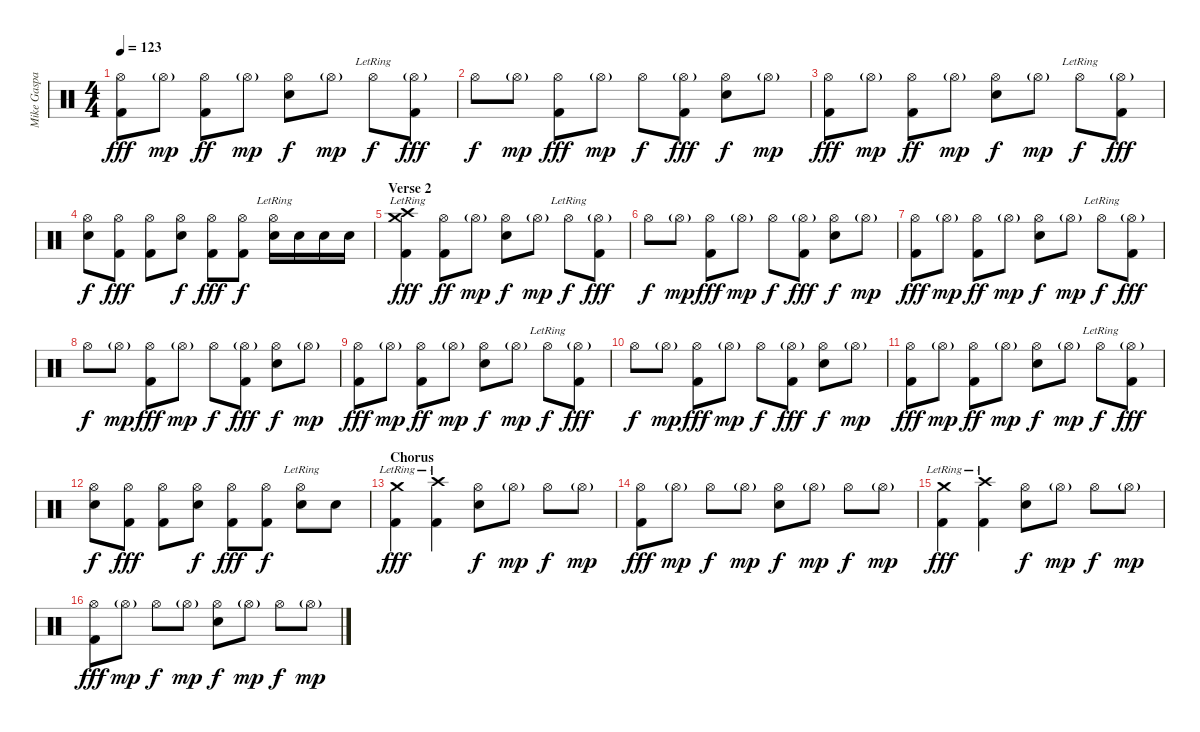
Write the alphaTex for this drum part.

\track ("Mike Gaspar (Drums)" "Mike Gaspa") {instrument percussion}
\staff {score}
\articulation defaults
\ts (4 4)
\tempo 123
\clef neutral
\ks c
("Hi-Hat (open)" "Kick (hit) 2").8{dy fff} "Hi-Hat (open)"{g}.8{dy mp} ("Hi-Hat (open)" "Kick (hit) 2").8{dy ff} "Hi-Hat (open)"{g}.8{dy mp} ("Hi-Hat (open)" "Snare (hit) 2").8{dy f} "Hi-Hat (open)"{g}.8{dy mp} "Hi-Hat (open)"{lr}.8{dy f} ("Hi-Hat (open)"{g} "Kick (hit) 2").8{dy fff} |
"Hi-Hat (open)".8{dy f} "Hi-Hat (open)"{g}.8{dy mp} ("Hi-Hat (open)" "Kick (hit) 2").8{dy fff} "Hi-Hat (open)"{g}.8{dy mp} "Hi-Hat (open)".8{dy f} ("Hi-Hat (open)"{g} "Kick (hit) 2").8{dy fff} ("Hi-Hat (open)" "Snare (hit) 2").8{dy f} "Hi-Hat (open)"{g}.8{dy mp} |
("Hi-Hat (open)" "Kick (hit) 2").8{dy fff} "Hi-Hat (open)"{g}.8{dy mp} ("Hi-Hat (open)" "Kick (hit) 2").8{dy ff} "Hi-Hat (open)"{g}.8{dy mp} ("Hi-Hat (open)" "Snare (hit) 2").8{dy f} "Hi-Hat (open)"{g}.8{dy mp} "Hi-Hat (open)"{lr}.8{dy f} ("Hi-Hat (open)"{g} "Kick (hit) 2").8{dy fff} |
("Hi-Hat (open)" "Snare (hit) 2").8{dy f} ("Hi-Hat (open)" "Kick (hit) 2").8{dy fff} ("Hi-Hat (open)" "Kick (hit) 2").8 ("Hi-Hat (open)" "Snare (hit) 2").8{dy f} ("Hi-Hat (open)" "Kick (hit) 2").8{dy fff} ("Hi-Hat (open)" "Kick (hit) 2").8{dy f} ("Hi-Hat (open)"{lr} "Snare (hit) 2").16 "Snare (hit) 2".16 "Snare (hit) 2".16 "Snare (hit) 2".16 |
\section ("" "Verse 2")
("Crash medium (hit)"{lr} "Crash high (hit)"{lr} "Kick (hit) 2").4{dy fff} ("Hi-Hat (open)" "Kick (hit) 2").8{dy ff} "Hi-Hat (open)"{g}.8{dy mp} ("Hi-Hat (open)" "Snare (hit) 2").8{dy f} "Hi-Hat (open)"{g}.8{dy mp} "Hi-Hat (open)"{lr}.8{dy f} ("Hi-Hat (open)"{g} "Kick (hit) 2").8{dy fff} |
"Hi-Hat (open)".8{dy f} "Hi-Hat (open)"{g}.8{dy mp} ("Hi-Hat (open)" "Kick (hit) 2").8{dy fff} "Hi-Hat (open)"{g}.8{dy mp} "Hi-Hat (open)".8{dy f} ("Hi-Hat (open)"{g} "Kick (hit) 2").8{dy fff} ("Hi-Hat (open)" "Snare (hit) 2").8{dy f} "Hi-Hat (open)"{g}.8{dy mp} |
("Hi-Hat (open)" "Kick (hit) 2").8{dy fff} "Hi-Hat (open)"{g}.8{dy mp} ("Hi-Hat (open)" "Kick (hit) 2").8{dy ff} "Hi-Hat (open)"{g}.8{dy mp} ("Hi-Hat (open)" "Snare (hit) 2").8{dy f} "Hi-Hat (open)"{g}.8{dy mp} "Hi-Hat (open)"{lr}.8{dy f} ("Hi-Hat (open)"{g} "Kick (hit) 2").8{dy fff} |
"Hi-Hat (open)".8{dy f} "Hi-Hat (open)"{g}.8{dy mp} ("Hi-Hat (open)" "Kick (hit) 2").8{dy fff} "Hi-Hat (open)"{g}.8{dy mp} "Hi-Hat (open)".8{dy f} ("Hi-Hat (open)"{g} "Kick (hit) 2").8{dy fff} ("Hi-Hat (open)" "Snare (hit) 2").8{dy f} "Hi-Hat (open)"{g}.8{dy mp} |
("Hi-Hat (open)" "Kick (hit) 2").8{dy fff} "Hi-Hat (open)"{g}.8{dy mp} ("Hi-Hat (open)" "Kick (hit) 2").8{dy ff} "Hi-Hat (open)"{g}.8{dy mp} ("Hi-Hat (open)" "Snare (hit) 2").8{dy f} "Hi-Hat (open)"{g}.8{dy mp} "Hi-Hat (open)"{lr}.8{dy f} ("Hi-Hat (open)"{g} "Kick (hit) 2").8{dy fff} |
"Hi-Hat (open)".8{dy f} "Hi-Hat (open)"{g}.8{dy mp} ("Hi-Hat (open)" "Kick (hit) 2").8{dy fff} "Hi-Hat (open)"{g}.8{dy mp} "Hi-Hat (open)".8{dy f} ("Hi-Hat (open)"{g} "Kick (hit) 2").8{dy fff} ("Hi-Hat (open)" "Snare (hit) 2").8{dy f} "Hi-Hat (open)"{g}.8{dy mp} |
("Hi-Hat (open)" "Kick (hit) 2").8{dy fff} "Hi-Hat (open)"{g}.8{dy mp} ("Hi-Hat (open)" "Kick (hit) 2").8{dy ff} "Hi-Hat (open)"{g}.8{dy mp} ("Hi-Hat (open)" "Snare (hit) 2").8{dy f} "Hi-Hat (open)"{g}.8{dy mp} "Hi-Hat (open)"{lr}.8{dy f} ("Hi-Hat (open)"{g} "Kick (hit) 2").8{dy fff} |
("Hi-Hat (open)" "Snare (hit) 2").8{dy f} ("Hi-Hat (open)" "Kick (hit) 2").8{dy fff} ("Hi-Hat (open)" "Kick (hit) 2").8 ("Hi-Hat (open)" "Snare (hit) 2").8{dy f} ("Hi-Hat (open)" "Kick (hit) 2").8{dy fff} ("Hi-Hat (open)" "Kick (hit) 2").8{dy f} ("Hi-Hat (open)"{lr} "Snare (hit) 2").8 "Snare (hit) 2".8 |
\section ("" "Chorus")
("Crash medium (hit)"{lr} "Kick (hit) 2").4{dy fff} ("Crash high (hit)"{lr} "Kick (hit) 2").4 ("Hi-Hat (open)" "Snare (hit) 2").8{dy f} "Hi-Hat (open)"{g}.8{dy mp} "Hi-Hat (open)".8{dy f} "Hi-Hat (open)"{g}.8{dy mp} |
("Hi-Hat (open)" "Kick (hit) 2").8{dy fff} "Hi-Hat (open)"{g}.8{dy mp} "Hi-Hat (open)".8{dy f} "Hi-Hat (open)"{g}.8{dy mp} ("Hi-Hat (open)" "Snare (hit) 2").8{dy f} "Hi-Hat (open)"{g}.8{dy mp} "Hi-Hat (open)".8{dy f} "Hi-Hat (open)"{g}.8{dy mp} |
("Crash medium (hit)"{lr} "Kick (hit) 2").4{dy fff} ("Crash high (hit)"{lr} "Kick (hit) 2").4 ("Hi-Hat (open)" "Snare (hit) 2").8{dy f} "Hi-Hat (open)"{g}.8{dy mp} "Hi-Hat (open)".8{dy f} "Hi-Hat (open)"{g}.8{dy mp} |
("Hi-Hat (open)" "Kick (hit) 2").8{dy fff} "Hi-Hat (open)"{g}.8{dy mp} "Hi-Hat (open)".8{dy f} "Hi-Hat (open)"{g}.8{dy mp} ("Hi-Hat (open)" "Snare (hit) 2").8{dy f} "Hi-Hat (open)"{g}.8{dy mp} "Hi-Hat (open)".8{dy f} "Hi-Hat (open)"{g}.8{dy mp}
